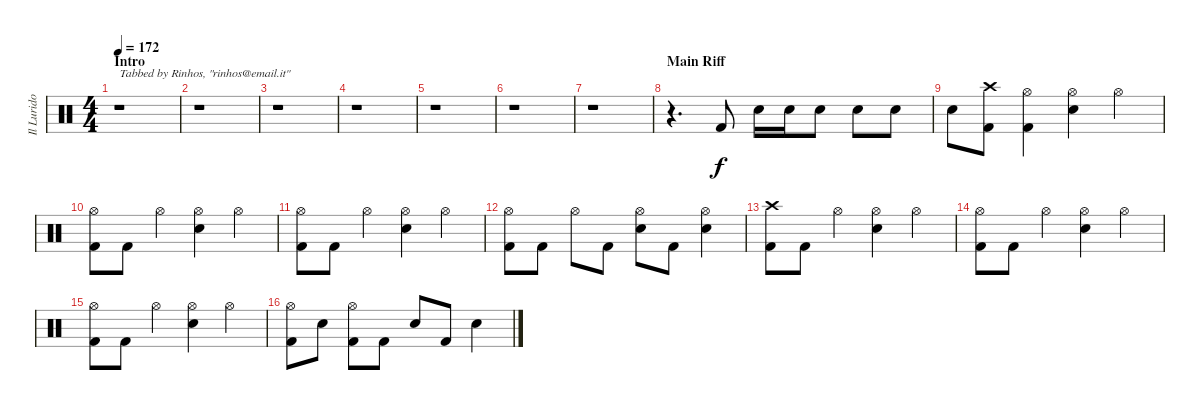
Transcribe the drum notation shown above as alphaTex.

\track ("Il Lurido Cavernicolo (Drums)" "Il Lurido ") {instrument percussion}
\staff {score}
\articulation defaults
\ts (4 4)
\section ("" "Intro")
\tempo 172
\clef neutral
\ks c
r.1{txt "Tabbed by Rinhos, \"rinhos@email.it\"" dy f} |
r.1 |
r.1 |
r.1 |
r.1 |
r.1 |
r.1 |
\section ("" "Main Riff")
r.4{d} "Kick (hit) 2".8 "Electric Snare (hit)".16 "Electric Snare (hit)".16 "Electric Snare (hit)".8 "Electric Snare (hit)".8 "Electric Snare (hit)".8 |
"Electric Snare (hit)".8 ("Crash high (hit)" "Kick (hit) 2").8 ("Hi-Hat (open)" "Kick (hit) 2").4 ("Hi-Hat (open)" "Electric Snare (hit)").4 "Hi-Hat (open)".4 |
("Hi-Hat (open)" "Kick (hit) 2").8 "Kick (hit) 2".8 "Hi-Hat (open)".4 ("Hi-Hat (open)" "Electric Snare (hit)").4 "Hi-Hat (open)".4 |
("Hi-Hat (open)" "Kick (hit) 2").8 "Kick (hit) 2".8 "Hi-Hat (open)".4 ("Hi-Hat (open)" "Electric Snare (hit)").4 "Hi-Hat (open)".4 |
("Hi-Hat (open)" "Kick (hit) 2").8 "Kick (hit) 2".8 "Hi-Hat (open)".8 "Kick (hit) 2".8 ("Hi-Hat (open)" "Electric Snare (hit)").8 "Kick (hit) 2".8 ("Hi-Hat (open)" "Electric Snare (hit)").4 |
("Crash high (hit)" "Kick (hit) 2").8 "Kick (hit) 2".8 "Hi-Hat (open)".4 ("Hi-Hat (open)" "Electric Snare (hit)").4 "Hi-Hat (open)".4 |
("Hi-Hat (open)" "Kick (hit) 2").8 "Kick (hit) 2".8 "Hi-Hat (open)".4 ("Hi-Hat (open)" "Electric Snare (hit)").4 "Hi-Hat (open)".4 |
("Hi-Hat (open)" "Kick (hit) 2").8 "Kick (hit) 2".8 "Hi-Hat (open)".4 ("Hi-Hat (open)" "Electric Snare (hit)").4 "Hi-Hat (open)".4 |
("Hi-Hat (open)" "Kick (hit) 2").8 "Electric Snare (hit)".8 ("Hi-Hat (open)" "Kick (hit) 2").8 "Kick (hit) 2".8 "Electric Snare (hit)".8 "Kick (hit) 2".8 "Electric Snare (hit)".4
